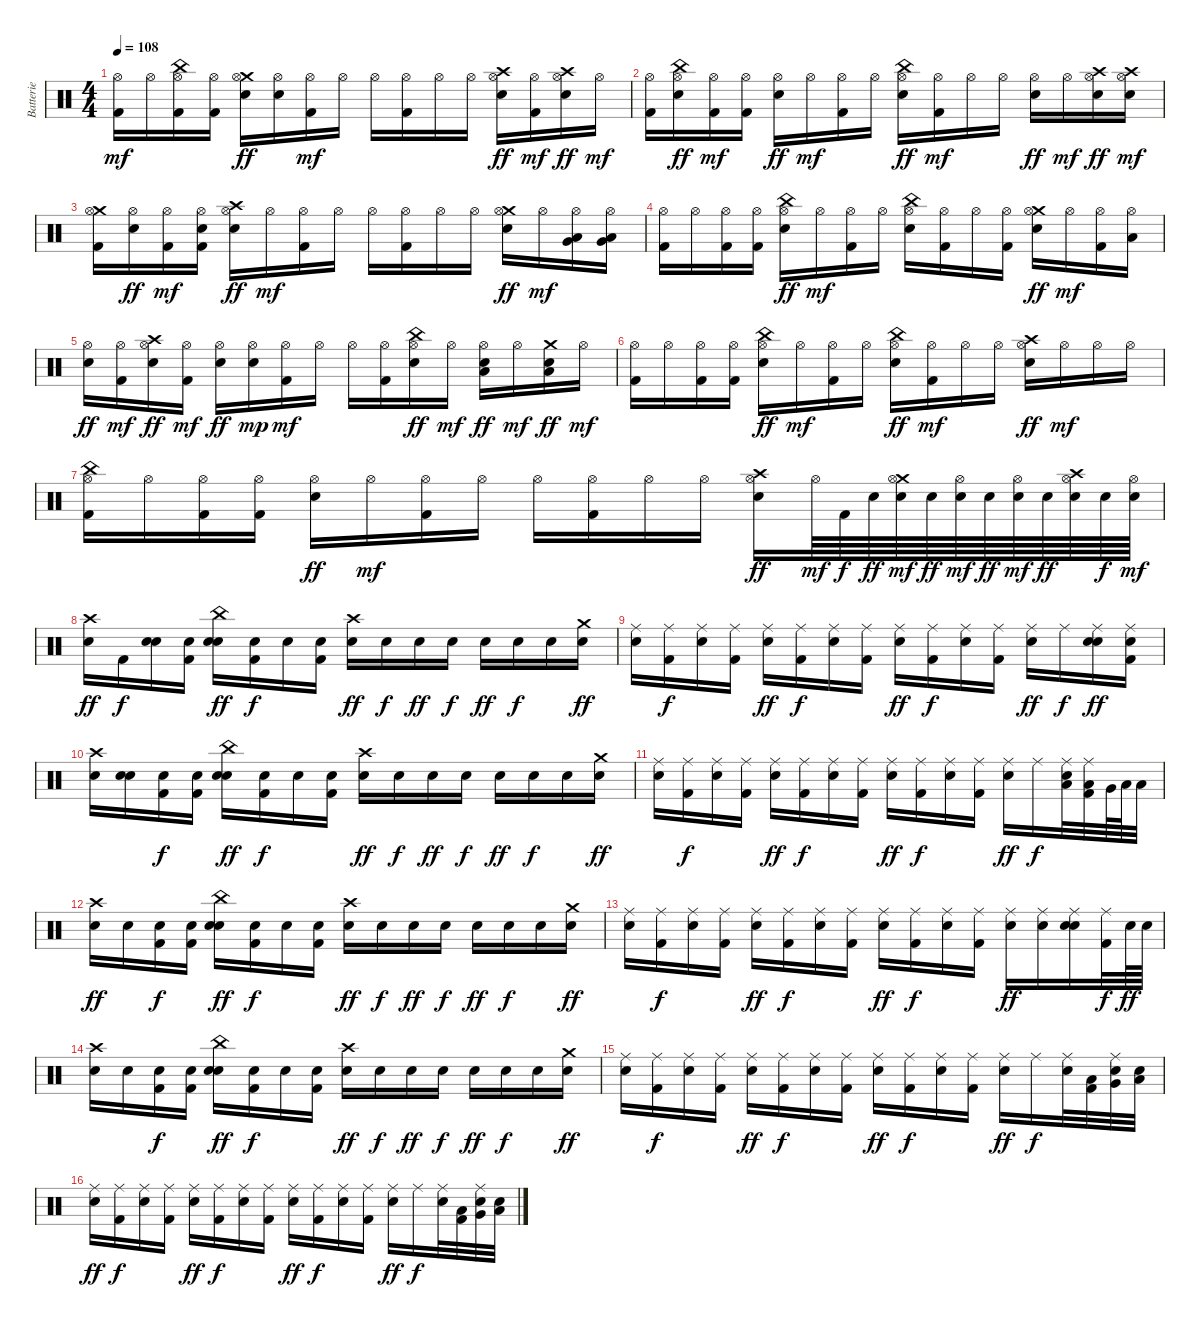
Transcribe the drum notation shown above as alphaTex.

\track ("Batterie" "Batterie") {instrument percussion}
\staff {score}
\articulation defaults
\ts (4 4)
\tempo 108
\clef neutral
\ks c
("Hi-Hat (open)" "Kick (hit) 2").16{dy mf} "Hi-Hat (open)".16 ("China (hit)" "Hi-Hat (open)" "Kick (hit) 2").16 ("Hi-Hat (open)" "Kick (hit) 2").16 ("Crash medium (hit)" "Hi-Hat (open)" "Snare (hit) 2").16{dy ff} ("Hi-Hat (open)" "Snare (hit) 2").16 ("Hi-Hat (open)" "Kick (hit) 2").16{dy mf} "Hi-Hat (open)".16 "Hi-Hat (open)".16 ("Hi-Hat (open)" "Kick (hit) 2").16 "Hi-Hat (open)".16 "Hi-Hat (open)".16 ("Crash high (hit)" "Hi-Hat (open)" "Snare (hit) 2").16{dy ff} ("Hi-Hat (open)" "Kick (hit) 2").16{dy mf} ("Crash high (hit)" "Hi-Hat (open)" "Snare (hit) 2").16{dy ff} "Hi-Hat (open)".16{dy mf} |
("Hi-Hat (open)" "Kick (hit) 2").16 ("China (hit)" "Hi-Hat (open)" "Snare (hit) 2").16{dy ff} ("Hi-Hat (open)" "Kick (hit) 2").16{dy mf} ("Hi-Hat (open)" "Kick (hit) 2").16 ("Hi-Hat (open)" "Snare (hit) 2").16{dy ff} "Hi-Hat (open)".16{dy mf} ("Hi-Hat (open)" "Kick (hit) 2").16 "Hi-Hat (open)".16 ("China (hit)" "Hi-Hat (open)" "Snare (hit) 2").16{dy ff} ("Hi-Hat (open)" "Kick (hit) 2").16{dy mf} "Hi-Hat (open)".16 "Hi-Hat (open)".16 ("Hi-Hat (open)" "Snare (hit) 2").16{dy ff} "Hi-Hat (open)".16{dy mf} ("Crash high (hit)" "Hi-Hat (open)" "Snare (hit) 2").16{dy ff} ("Crash high (hit)" "Hi-Hat (open)" "Snare (hit) 2").16{dy mf} |
("Crash medium (hit)" "Hi-Hat (open)" "Kick (hit) 2").16 ("Hi-Hat (open)" "Snare (hit) 2").16{dy ff} ("Hi-Hat (open)" "Kick (hit) 2").16{dy mf} ("Hi-Hat (open)" "Snare (hit) 2" "Kick (hit) 2").16 ("Crash high (hit)" "Hi-Hat (open)" "Snare (hit) 2").16{dy ff} "Hi-Hat (open)".16{dy mf} ("Hi-Hat (open)" "Kick (hit) 2").16 "Hi-Hat (open)".16 "Hi-Hat (open)".16 ("Hi-Hat (open)" "Kick (hit) 2").16 "Hi-Hat (open)".16 "Hi-Hat (open)".16 ("Crash medium (hit)" "Hi-Hat (open)" "Snare (hit) 2").16{dy ff} "Hi-Hat (open)".16{dy mf} ("Very Low Tom (hit)" "Hi-Hat (open)" "Low Floor Tom (hit)").16 ("Very Low Tom (hit)" "Hi-Hat (open)" "Low Floor Tom (hit)").16 |
("Hi-Hat (open)" "Kick (hit) 2").16 "Hi-Hat (open)".16 ("Hi-Hat (open)" "Kick (hit) 2").16 ("Hi-Hat (open)" "Kick (hit) 2").16 ("China (hit)" "Hi-Hat (open)" "Snare (hit) 2").16{dy ff} "Hi-Hat (open)".16{dy mf} ("Hi-Hat (open)" "Kick (hit) 2").16 "Hi-Hat (open)".16 ("China (hit)" "Hi-Hat (open)" "Snare (hit) 2").16 ("Hi-Hat (open)" "Kick (hit) 2").16 "Hi-Hat (open)".16 ("Hi-Hat (open)" "Kick (hit) 2").16 ("Crash medium (hit)" "Hi-Hat (open)" "Snare (hit) 2").16{dy ff} "Hi-Hat (open)".16{dy mf} ("Hi-Hat (open)" "Kick (hit) 2").16 ("Hi-Hat (open)" "Low Tom (hit)").16 |
("Hi-Hat (open)" "Snare (hit) 2").16{dy ff} ("Hi-Hat (open)" "Kick (hit) 2").16{dy mf} ("Crash high (hit)" "Hi-Hat (open)" "Snare (hit) 2").16{dy ff} ("Hi-Hat (open)" "Kick (hit) 2").16{dy mf} ("Hi-Hat (open)" "Snare (hit) 2").16{dy ff} ("Hi-Hat (open)" "Snare (hit) 2").16{dy mp} ("Hi-Hat (open)" "Kick (hit) 2").16{dy mf} "Hi-Hat (open)".16 "Hi-Hat (open)".16 ("Hi-Hat (open)" "Kick (hit) 2").16 ("China (hit)" "Hi-Hat (open)" "Snare (hit) 2").16{dy ff} "Hi-Hat (open)".16{dy mf} ("Hi-Hat (open)" "Low Floor Tom (hit)" "Snare (hit) 2").16{dy ff} "Hi-Hat (open)".16{dy mf} ("Crash medium (hit)" "Low Floor Tom (hit)" "Snare (hit) 2").16{dy ff} "Hi-Hat (open)".16{dy mf} |
("Hi-Hat (open)" "Kick (hit) 2").16 "Hi-Hat (open)".16 ("Hi-Hat (open)" "Kick (hit) 2").16 ("Hi-Hat (open)" "Kick (hit) 2").16 ("China (hit)" "Hi-Hat (open)" "Snare (hit) 2").16{dy ff} "Hi-Hat (open)".16{dy mf} ("Hi-Hat (open)" "Kick (hit) 2").16 "Hi-Hat (open)".16 ("China (hit)" "Hi-Hat (open)" "Snare (hit) 2").16{dy ff} ("Hi-Hat (open)" "Kick (hit) 2").16{dy mf} "Hi-Hat (open)".16 "Hi-Hat (open)".16 ("Crash high (hit)" "Hi-Hat (open)" "Snare (hit) 2").16{dy ff} "Hi-Hat (open)".16{dy mf} "Hi-Hat (open)".16 "Hi-Hat (open)".16 |
("China (hit)" "Hi-Hat (open)" "Kick (hit) 2").16 "Hi-Hat (open)".16 ("Hi-Hat (open)" "Kick (hit) 2").16 ("Hi-Hat (open)" "Kick (hit) 2").16 ("Hi-Hat (open)" "Snare (hit) 2").16{dy ff} "Hi-Hat (open)".16{dy mf} ("Hi-Hat (open)" "Kick (hit) 2").16 "Hi-Hat (open)".16 "Hi-Hat (open)".16 ("Hi-Hat (open)" "Kick (hit) 2").16 "Hi-Hat (open)".16 "Hi-Hat (open)".16 ("Crash high (hit)" "Hi-Hat (open)" "Snare (hit) 2").16{dy ff} "Hi-Hat (open)".64{dy mf} "Kick (hit) 2".64{dy f} "Snare (hit) 2".64{dy ff} ("Crash medium (hit)" "Hi-Hat (open)" "Snare (hit)").64{dy mf} "Snare (hit) 2".64{dy ff} ("Hi-Hat (open)" "Snare (hit) 2").64{dy mf} "Snare (hit) 2".64{dy ff} ("Hi-Hat (open)" "Snare (hit)").64{dy mf} "Snare (hit) 2".64{dy ff} ("Crash high (hit)" "Hi-Hat (open)" "Snare (hit) 2").64 "Snare (hit) 2".64{dy f} ("Hi-Hat (open)" "Snare (hit) 2").64{dy mf} |
("Crash high (hit)" "Snare (hit) 2").16{dy ff} "Kick (hit) 2".16{dy f} ("Snare (hit)" "Snare (hit)").16 ("Snare (hit)" "Kick (hit) 2").16 ("China (hit)" "Snare (hit) 2" "Snare (hit)").16{dy ff} ("Snare (hit)" "Kick (hit) 2").16{dy f} "Snare (hit)".16 ("Snare (hit)" "Kick (hit) 2").16 ("Crash high (hit)" "Snare (hit) 2").16{dy ff} "Snare (hit)".16{dy f} "Snare (hit) 2".16{dy ff} "Snare (hit)".16{dy f} "Snare (hit) 2".16{dy ff} "Snare (hit)".16{dy f} "Snare (hit) 2".16 ("Crash medium (hit)" "Snare (hit) 2").16{dy ff} |
("Ride (middle)" "Snare (hit) 2").16 ("Ride (middle)" "Kick (hit) 2").16{dy f} ("Ride (middle)" "Snare (hit)").16 ("Ride (middle)" "Kick (hit) 2").16 ("Ride (middle)" "Snare (hit) 2").16{dy ff} ("Ride (middle)" "Kick (hit) 2").16{dy f} ("Ride (middle)" "Snare (hit)").16 ("Ride (middle)" "Kick (hit) 2").16 ("Ride (middle)" "Snare (hit) 2").16{dy ff} ("Ride (middle)" "Kick (hit) 2").16{dy f} ("Ride (middle)" "Snare (hit)").16 ("Ride (middle)" "Kick (hit) 2").16 ("Ride (middle)" "Snare (hit) 2").16{dy ff} "Ride (middle)".16{dy f} ("Ride (middle)" "Snare (hit) 2" "Snare (hit)").16{dy ff} ("Ride (middle)" "Snare (hit) 2" "Kick (hit) 2").16 |
("Crash high (hit)" "Snare (hit) 2").16 ("Snare (hit) 2" "Snare (hit)").16 ("Snare (hit)" "Kick (hit) 2").16{dy f} ("Snare (hit)" "Kick (hit) 2").16 ("China (hit)" "Snare (hit) 2" "Snare (hit)").16{dy ff} ("Snare (hit)" "Kick (hit) 2").16{dy f} "Snare (hit)".16 ("Snare (hit)" "Kick (hit) 2").16 ("Crash high (hit)" "Snare (hit) 2").16{dy ff} "Snare (hit)".16{dy f} "Snare (hit) 2".16{dy ff} "Snare (hit)".16{dy f} "Snare (hit) 2".16{dy ff} "Snare (hit) 2".16{dy f} "Snare (hit)".16 ("Crash medium (hit)" "Snare (hit) 2").16{dy ff} |
("Ride (middle)" "Snare (hit) 2").16 ("Ride (middle)" "Kick (hit) 2").16{dy f} ("Ride (middle)" "Snare (hit)").16 ("Ride (middle)" "Kick (hit) 2").16 ("Ride (middle)" "Snare (hit) 2").16{dy ff} ("Ride (middle)" "Kick (hit) 2").16{dy f} ("Ride (middle)" "Snare (hit)").16 ("Ride (middle)" "Kick (hit) 2").16 ("Ride (middle)" "Snare (hit) 2").16{dy ff} ("Ride (middle)" "Kick (hit) 2").16{dy f} ("Ride (middle)" "Snare (hit)").16 ("Ride (middle)" "Kick (hit) 2").16 ("Ride (middle)" "Snare (hit) 2").16{dy ff} "Ride (middle)".16{dy f} ("Low Tom (hit)" "Ride (middle)" "Snare (hit)").32 ("Low Tom (hit)" "Ride (middle)" "Kick (hit) 2").32 "Very Low Tom (hit)".64 "Low Floor Tom (hit)".64 "Low Floor Tom (hit)".32 |
("Crash high (hit)" "Snare (hit) 2").16{dy ff} "Snare (hit) 2".16 ("Snare (hit)" "Kick (hit) 2").16{dy f} ("Snare (hit)" "Kick (hit) 2").16 ("China (hit)" "Snare (hit) 2" "Snare (hit)").16{dy ff} ("Snare (hit)" "Kick (hit) 2").16{dy f} "Snare (hit)".16 ("Snare (hit)" "Kick (hit) 2").16 ("Crash high (hit)" "Snare (hit) 2").16{dy ff} "Snare (hit)".16{dy f} "Snare (hit) 2".16{dy ff} "Snare (hit)".16{dy f} "Snare (hit) 2".16{dy ff} "Snare (hit) 2".16{dy f} "Snare (hit)".16 ("Crash medium (hit)" "Snare (hit) 2").16{dy ff} |
("Ride (middle)" "Snare (hit) 2").16 ("Ride (middle)" "Kick (hit) 2").16{dy f} ("Ride (middle)" "Snare (hit)").16 ("Ride (middle)" "Kick (hit) 2").16 ("Ride (middle)" "Snare (hit) 2").16{dy ff} ("Ride (middle)" "Kick (hit) 2").16{dy f} ("Ride (middle)" "Snare (hit)").16 ("Ride (middle)" "Kick (hit) 2").16 ("Ride (middle)" "Snare (hit) 2").16{dy ff} ("Ride (middle)" "Kick (hit) 2").16{dy f} ("Ride (middle)" "Snare (hit)").16 ("Ride (middle)" "Kick (hit) 2").16 ("Ride (middle)" "Snare (hit) 2").16{dy ff} ("Ride (middle)" "Snare (hit)").16 ("Ride (middle)" "Snare (hit)" "Snare (hit)").16 ("Ride (middle)" "Kick (hit) 2").32{dy f} "Snare (hit) 2".64{dy ff} "Snare (hit) 2".64 |
("Crash high (hit)" "Snare (hit) 2").16 "Snare (hit) 2".16 ("Snare (hit)" "Kick (hit) 2").16{dy f} ("Snare (hit)" "Kick (hit) 2").16 ("China (hit)" "Snare (hit) 2" "Snare (hit)").16{dy ff} ("Snare (hit)" "Kick (hit) 2").16{dy f} "Snare (hit)".16 ("Snare (hit)" "Kick (hit) 2").16 ("Crash high (hit)" "Snare (hit) 2").16{dy ff} "Snare (hit)".16{dy f} "Snare (hit) 2".16{dy ff} "Snare (hit)".16{dy f} "Snare (hit) 2".16{dy ff} "Snare (hit) 2".16{dy f} "Snare (hit)".16 ("Crash medium (hit)" "Snare (hit) 2").16{dy ff} |
("Ride (middle)" "Snare (hit) 2").16 ("Ride (middle)" "Kick (hit) 2").16{dy f} ("Ride (middle)" "Snare (hit)").16 ("Ride (middle)" "Kick (hit) 2").16 ("Ride (middle)" "Snare (hit) 2").16{dy ff} ("Ride (middle)" "Kick (hit) 2").16{dy f} ("Ride (middle)" "Snare (hit)").16 ("Ride (middle)" "Kick (hit) 2").16 ("Ride (middle)" "Snare (hit) 2").16{dy ff} ("Ride (middle)" "Kick (hit) 2").16{dy f} ("Ride (middle)" "Snare (hit)").16 ("Ride (middle)" "Kick (hit) 2").16 ("Ride (middle)" "Snare (hit) 2").16{dy ff} "Ride (middle)".16{dy f} ("Ride (middle)" "Snare (hit)").32 ("Low Tom (hit)" "Kick (hit) 2").32 ("Very Low Tom (hit)" "Ride (middle)" "Snare (hit)").32 ("Low Floor Tom (hit)" "Snare (hit)").32 |
("Ride (middle)" "Snare (hit) 2").16{dy ff} ("Ride (middle)" "Kick (hit) 2").16{dy f} ("Ride (middle)" "Snare (hit)").16 ("Ride (middle)" "Kick (hit) 2").16 ("Ride (middle)" "Snare (hit) 2").16{dy ff} ("Ride (middle)" "Kick (hit) 2").16{dy f} ("Ride (middle)" "Snare (hit)").16 ("Ride (middle)" "Kick (hit) 2").16 ("Ride (middle)" "Snare (hit) 2").16{dy ff} ("Ride (middle)" "Kick (hit) 2").16{dy f} ("Ride (middle)" "Snare (hit)").16 ("Ride (middle)" "Kick (hit) 2").16 ("Ride (middle)" "Snare (hit) 2").16{dy ff} "Ride (middle)".16{dy f} ("Ride (middle)" "Snare (hit)").32 ("Low Tom (hit)" "Kick (hit) 2").32 ("Very Low Tom (hit)" "Ride (middle)" "Snare (hit)").32 ("Low Floor Tom (hit)" "Snare (hit)").32
